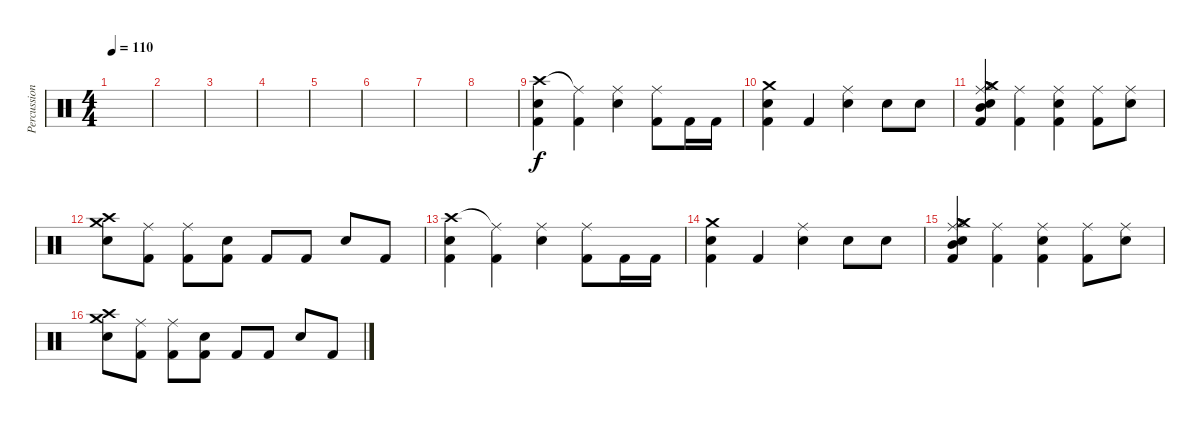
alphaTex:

\track ("Percussion" "Percussion") {instrument percussion}
\staff {score}
\articulation defaults
\ts (4 4)
\tempo 110
\clef neutral
\ks c
|
|
|
|
|
|
|
|
("Crash high (hit)" "Kick (hit) 2" "Snare (hit) 2").4 ("Ride (middle)"{t} "Kick (hit) 2").4 ("Ride (middle)" "Snare (hit) 2").4 ("Ride (middle)" "Kick (hit) 2").8 "Kick (hit) 2".16 "Kick (hit) 2".16 |
("Crash medium (hit)" "Snare (hit) 2" "Kick (hit) 2").4 "Kick (hit) 2".4 ("Ride (middle)" "Snare (hit) 2").4 "Snare (hit) 2".8 "Snare (hit) 2".8 |
("Hi-Hat (open)" "Crash medium (hit)" "Ride (middle)" "Mid Tom (hit)" "Snare (hit) 2" "Kick (hit) 2").4 ("Ride (middle)" "Kick (hit) 2").4 ("Ride (middle)" "Kick (hit) 2" "Snare (hit) 2").4 ("Ride (middle)" "Kick (hit) 2").8 ("Snare (hit) 2" "Ride (middle)").8 |
("Snare (hit) 2" "Crash medium (hit)" "Crash high (hit)").8 ("Kick (hit) 2" "Ride (middle)").8 ("Kick (hit) 2" "Ride (middle)").8 ("Snare (hit) 2" "Kick (hit) 2").8 "Kick (hit) 2".8 "Kick (hit) 2".8 "Snare (hit) 2".8 "Kick (hit) 2".8 |
("Crash high (hit)" "Kick (hit) 2" "Snare (hit) 2").4 ("Ride (middle)"{t} "Kick (hit) 2").4 ("Ride (middle)" "Snare (hit) 2").4 ("Ride (middle)" "Kick (hit) 2").8 "Kick (hit) 2".16 "Kick (hit) 2".16 |
("Crash medium (hit)" "Snare (hit) 2" "Kick (hit) 2").4 "Kick (hit) 2".4 ("Ride (middle)" "Snare (hit) 2").4 "Snare (hit) 2".8 "Snare (hit) 2".8 |
("Hi-Hat (open)" "Crash medium (hit)" "Ride (middle)" "Mid Tom (hit)" "Snare (hit) 2" "Kick (hit) 2").4 ("Ride (middle)" "Kick (hit) 2").4 ("Ride (middle)" "Kick (hit) 2" "Snare (hit) 2").4 ("Ride (middle)" "Kick (hit) 2").8 ("Snare (hit) 2" "Ride (middle)").8 |
("Snare (hit) 2" "Crash medium (hit)" "Crash high (hit)").8 ("Kick (hit) 2" "Ride (middle)").8 ("Kick (hit) 2" "Ride (middle)").8 ("Snare (hit) 2" "Kick (hit) 2").8 "Kick (hit) 2".8 "Kick (hit) 2".8 "Snare (hit) 2".8 "Kick (hit) 2".8
